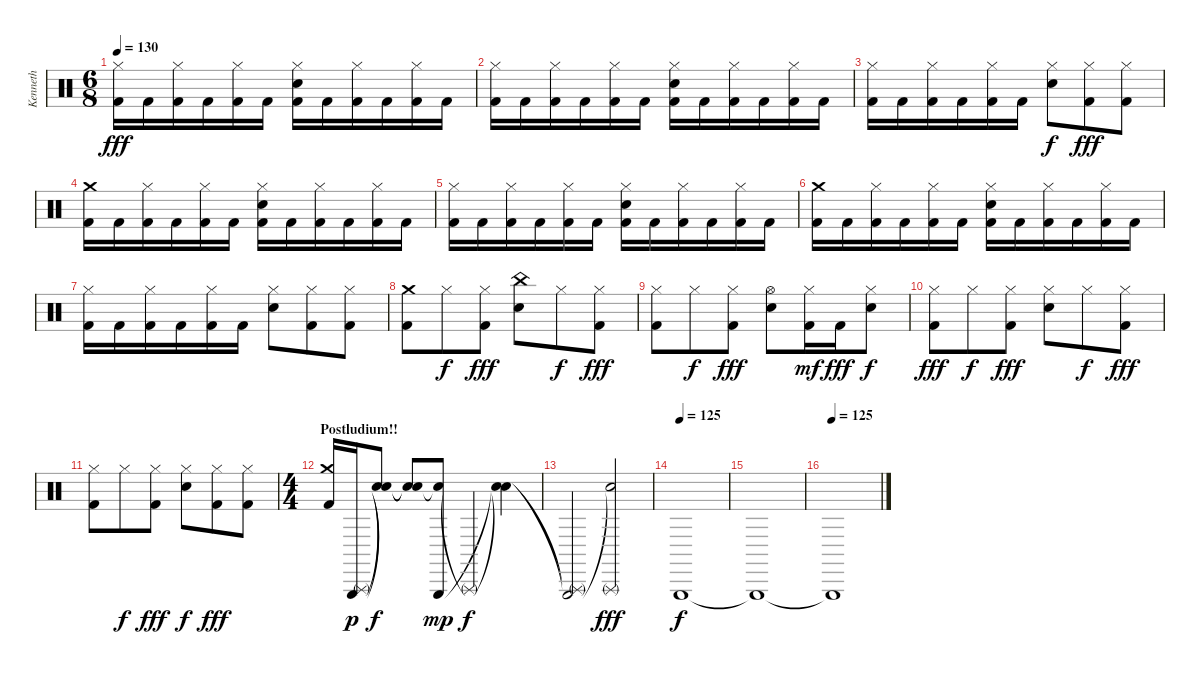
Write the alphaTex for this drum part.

\track ("Kenneth" "Kenneth") {instrument percussion}
\staff {score}
\articulation defaults
\ts (6 8)
\tempo 130
\clef neutral
\ks c
("Hi-Hat (closed)" "Kick (hit) 2").16{dy fff} "Kick (hit) 2".16 ("Hi-Hat (closed)" "Kick (hit) 2").16 "Kick (hit) 2".16 ("Hi-Hat (closed)" "Kick (hit) 2").16 "Kick (hit) 2".16 ("Hi-Hat (closed)" "Electric Snare (hit)" "Kick (hit) 2").16 "Kick (hit) 2".16 ("Hi-Hat (closed)" "Kick (hit) 2").16 "Kick (hit) 2".16 ("Hi-Hat (closed)" "Kick (hit) 2").16 "Kick (hit) 2".16 |
("Hi-Hat (closed)" "Kick (hit) 2").16 "Kick (hit) 2".16 ("Hi-Hat (closed)" "Kick (hit) 2").16 "Kick (hit) 2".16 ("Hi-Hat (closed)" "Kick (hit) 2").16 "Kick (hit) 2".16 ("Hi-Hat (closed)" "Electric Snare (hit)" "Kick (hit) 2").16 "Kick (hit) 2".16 ("Hi-Hat (closed)" "Kick (hit) 2").16 "Kick (hit) 2".16 ("Hi-Hat (closed)" "Kick (hit) 2").16 "Kick (hit) 2".16 |
("Hi-Hat (closed)" "Kick (hit) 2").16 "Kick (hit) 2".16 ("Hi-Hat (closed)" "Kick (hit) 2").16 "Kick (hit) 2".16 ("Hi-Hat (closed)" "Kick (hit) 2").16 "Kick (hit) 2".16 ("Hi-Hat (closed)" "Electric Snare (hit)").8{dy f} ("Hi-Hat (closed)" "Kick (hit) 2").8{dy fff} ("Hi-Hat (closed)" "Kick (hit) 2").8 |
("Crash medium (hit)" "Kick (hit) 2").16 "Kick (hit) 2".16 ("Hi-Hat (closed)" "Kick (hit) 2").16 "Kick (hit) 2".16 ("Hi-Hat (closed)" "Kick (hit) 2").16 "Kick (hit) 2".16 ("Hi-Hat (closed)" "Electric Snare (hit)" "Kick (hit) 2").16 "Kick (hit) 2".16 ("Hi-Hat (closed)" "Kick (hit) 2").16 "Kick (hit) 2".16 ("Hi-Hat (closed)" "Kick (hit) 2").16 "Kick (hit) 2".16 |
("Hi-Hat (closed)" "Kick (hit) 2").16 "Kick (hit) 2".16 ("Hi-Hat (closed)" "Kick (hit) 2").16 "Kick (hit) 2".16 ("Hi-Hat (closed)" "Kick (hit) 2").16 "Kick (hit) 2".16 ("Hi-Hat (closed)" "Electric Snare (hit)" "Kick (hit) 2").16 "Kick (hit) 2".16 ("Hi-Hat (closed)" "Kick (hit) 2").16 "Kick (hit) 2".16 ("Hi-Hat (closed)" "Kick (hit) 2").16 "Kick (hit) 2".16 |
("Crash medium (hit)" "Kick (hit) 2").16 "Kick (hit) 2".16 ("Hi-Hat (closed)" "Kick (hit) 2").16 "Kick (hit) 2".16 ("Hi-Hat (closed)" "Kick (hit) 2").16 "Kick (hit) 2".16 ("Hi-Hat (closed)" "Electric Snare (hit)" "Kick (hit) 2").16 "Kick (hit) 2".16 ("Hi-Hat (closed)" "Kick (hit) 2").16 "Kick (hit) 2".16 ("Hi-Hat (closed)" "Kick (hit) 2").16 "Kick (hit) 2".16 |
("Hi-Hat (closed)" "Kick (hit) 2").16 "Kick (hit) 2".16 ("Hi-Hat (closed)" "Kick (hit) 2").16 "Kick (hit) 2".16 ("Hi-Hat (closed)" "Kick (hit) 2").16 "Kick (hit) 2".16 ("Hi-Hat (closed)" "Electric Snare (hit)").8 ("Hi-Hat (closed)" "Kick (hit) 2").8 ("Hi-Hat (closed)" "Kick (hit) 2").8 |
("Crash medium (hit)" "Kick (hit) 2").8 "Hi-Hat (closed)".8{dy f} ("Hi-Hat (closed)" "Kick (hit) 2").8{dy fff} ("China (hit)" "Electric Snare (hit)").8 "Hi-Hat (closed)".8{dy f} ("Hi-Hat (closed)" "Kick (hit) 2").8{dy fff} |
("Hi-Hat (closed)" "Kick (hit) 2").8 "Hi-Hat (closed)".8{dy f} ("Hi-Hat (closed)" "Kick (hit) 2").8{dy fff} ("Hi-Hat (open)" "Electric Snare (hit)").8 ("Hi-Hat (closed)" "Kick (hit) 2").16{dy mf} "Kick (hit) 2".16{dy fff} ("Hi-Hat (closed)" "Electric Snare (hit)").8{dy f} |
("Hi-Hat (closed)" "Kick (hit) 2").8{dy fff} "Hi-Hat (closed)".8{dy f} ("Hi-Hat (closed)" "Kick (hit) 2").8{dy fff} ("Hi-Hat (closed)" "Electric Snare (hit)").8 "Hi-Hat (closed)".8{dy f} ("Hi-Hat (closed)" "Kick (hit) 2").8{dy fff} |
("Hi-Hat (closed)" "Kick (hit) 2").8 "Hi-Hat (closed)".8{dy f} ("Hi-Hat (closed)" "Kick (hit) 2").8{dy fff} ("Hi-Hat (closed)" "Electric Snare (hit)").8{dy f} ("Hi-Hat (closed)" "Kick (hit) 2").8{dy fff} ("Hi-Hat (closed)" "Kick (hit) 2").8 |
\ts (4 4)
\section ("" "Postludium!!")
("Crash medium (hit)" "Kick (hit) 2").16 ("Triangle (rnute)" "Triangle (hit)").16{dy p} ("Snare (hit)"{t} "Snare (hit)"{t}).8{dy f} ("Snare (hit)"{t} "Snare (hit)"{t}).8 ("Snare (hit)"{t} "Triangle (hit)").8{dy mp} "Triangle (rnute)"{t}.4{dy f} ("Snare (hit)"{t} "Snare (hit)"{t}).4 |
("Triangle (rnute)"{t} "Triangle (hit)"{t}).2 ("Triangle (rnute)" "Snare (hit)"{t}).2{dy fff} |
\tempo (125)
"Triangle (hit)".1{dy f} |
"Triangle (hit)"{t}.1 |
\tempo (125)
"Triangle (hit)"{t}.1{volume 8}
